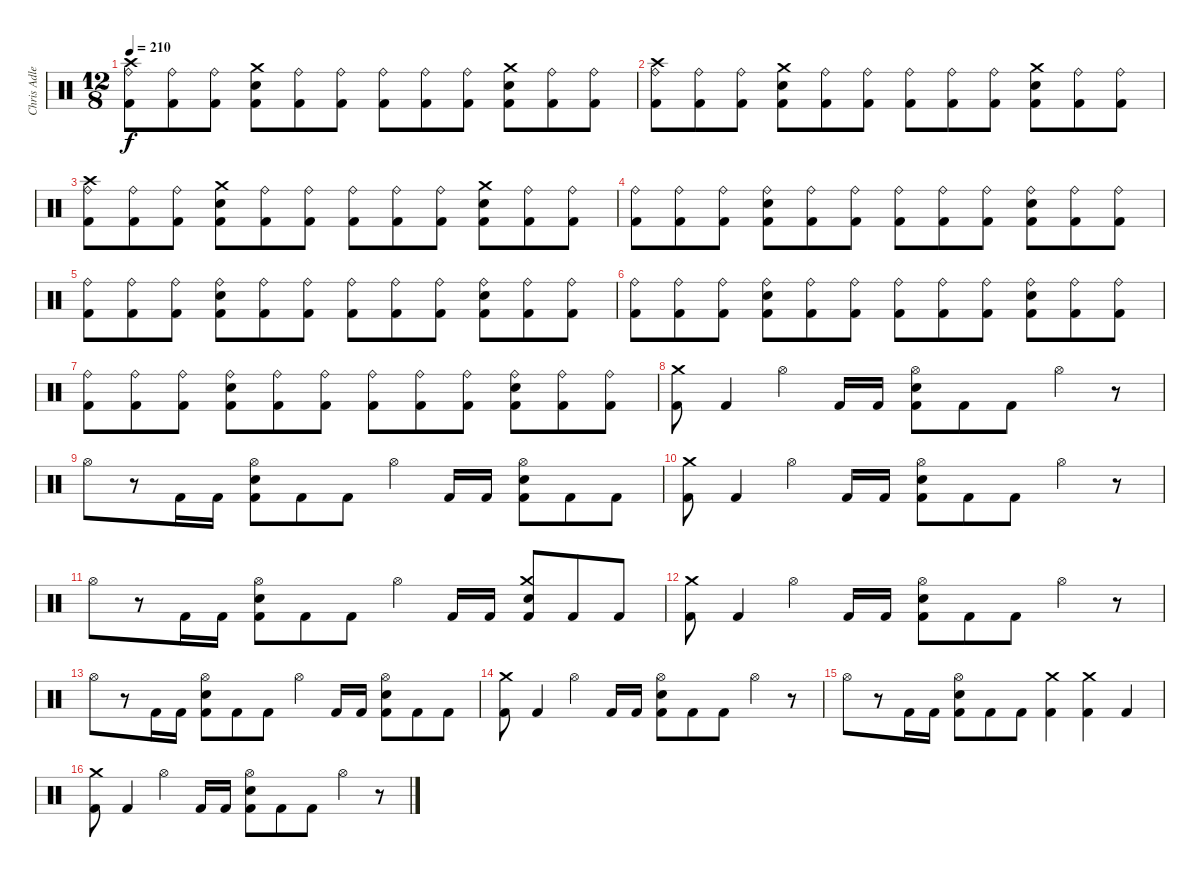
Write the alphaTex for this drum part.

\track ("Chris Adler" "Chris Adle") {instrument percussion}
\staff {score}
\articulation defaults
\ts (12 8)
\tempo 210
\clef neutral
\ks c
("Crash high (hit)" "Ride (bell)" "Kick (hit) 2").8{dy f} ("Ride (bell)" "Kick (hit) 2").8 ("Ride (bell)" "Kick (hit) 2").8 ("Crash medium (hit)" "Snare (hit) 2" "Kick (hit) 2").8 ("Ride (bell)" "Kick (hit) 2").8 ("Ride (bell)" "Kick (hit) 2").8 ("Ride (bell)" "Kick (hit) 2").8 ("Ride (bell)" "Kick (hit) 2").8 ("Ride (bell)" "Kick (hit) 2").8 ("Crash medium (hit)" "Snare (hit) 2" "Kick (hit) 2").8 ("Ride (bell)" "Kick (hit) 2").8 ("Ride (bell)" "Kick (hit) 2").8 |
("Crash high (hit)" "Ride (bell)" "Kick (hit) 2").8 ("Ride (bell)" "Kick (hit) 2").8 ("Ride (bell)" "Kick (hit) 2").8 ("Crash medium (hit)" "Snare (hit) 2" "Kick (hit) 2").8 ("Ride (bell)" "Kick (hit) 2").8 ("Ride (bell)" "Kick (hit) 2").8 ("Ride (bell)" "Kick (hit) 2").8 ("Ride (bell)" "Kick (hit) 2").8 ("Ride (bell)" "Kick (hit) 2").8 ("Crash medium (hit)" "Snare (hit) 2" "Kick (hit) 2").8 ("Ride (bell)" "Kick (hit) 2").8 ("Ride (bell)" "Kick (hit) 2").8 |
("Crash high (hit)" "Ride (bell)" "Kick (hit) 2").8 ("Ride (bell)" "Kick (hit) 2").8 ("Ride (bell)" "Kick (hit) 2").8 ("Crash medium (hit)" "Snare (hit) 2" "Kick (hit) 2").8 ("Ride (bell)" "Kick (hit) 2").8 ("Ride (bell)" "Kick (hit) 2").8 ("Ride (bell)" "Kick (hit) 2").8 ("Ride (bell)" "Kick (hit) 2").8 ("Ride (bell)" "Kick (hit) 2").8 ("Crash medium (hit)" "Snare (hit) 2" "Kick (hit) 2").8 ("Ride (bell)" "Kick (hit) 2").8 ("Ride (bell)" "Kick (hit) 2").8 |
("Ride (bell)" "Kick (hit) 2").8 ("Ride (bell)" "Kick (hit) 2").8 ("Ride (bell)" "Kick (hit) 2").8 ("Ride (bell)" "Snare (hit) 2" "Kick (hit) 2").8 ("Ride (bell)" "Kick (hit) 2").8 ("Ride (bell)" "Kick (hit) 2").8 ("Ride (bell)" "Kick (hit) 2").8 ("Ride (bell)" "Kick (hit) 2").8 ("Ride (bell)" "Kick (hit) 2").8 ("Ride (bell)" "Snare (hit) 2" "Kick (hit) 2").8 ("Ride (bell)" "Kick (hit) 2").8 ("Ride (bell)" "Kick (hit) 2").8 |
("Ride (bell)" "Kick (hit) 2").8 ("Ride (bell)" "Kick (hit) 2").8 ("Ride (bell)" "Kick (hit) 2").8 ("Ride (bell)" "Snare (hit) 2" "Kick (hit) 2").8 ("Ride (bell)" "Kick (hit) 2").8 ("Ride (bell)" "Kick (hit) 2").8 ("Ride (bell)" "Kick (hit) 2").8 ("Ride (bell)" "Kick (hit) 2").8 ("Ride (bell)" "Kick (hit) 2").8 ("Ride (bell)" "Snare (hit) 2" "Kick (hit) 2").8 ("Ride (bell)" "Kick (hit) 2").8 ("Ride (bell)" "Kick (hit) 2").8 |
("Ride (bell)" "Kick (hit) 2").8 ("Ride (bell)" "Kick (hit) 2").8 ("Ride (bell)" "Kick (hit) 2").8 ("Ride (bell)" "Snare (hit) 2" "Kick (hit) 2").8 ("Ride (bell)" "Kick (hit) 2").8 ("Ride (bell)" "Kick (hit) 2").8 ("Ride (bell)" "Kick (hit) 2").8 ("Ride (bell)" "Kick (hit) 2").8 ("Ride (bell)" "Kick (hit) 2").8 ("Ride (bell)" "Snare (hit) 2" "Kick (hit) 2").8 ("Ride (bell)" "Kick (hit) 2").8 ("Ride (bell)" "Kick (hit) 2").8 |
("Ride (bell)" "Kick (hit) 2").8 ("Ride (bell)" "Kick (hit) 2").8 ("Ride (bell)" "Kick (hit) 2").8 ("Ride (bell)" "Snare (hit) 2" "Kick (hit) 2").8 ("Ride (bell)" "Kick (hit) 2").8 ("Ride (bell)" "Kick (hit) 2").8 ("Ride (bell)" "Kick (hit) 2").8 ("Ride (bell)" "Kick (hit) 2").8 ("Ride (bell)" "Kick (hit) 2").8 ("Ride (bell)" "Snare (hit) 2" "Kick (hit) 2").8 ("Ride (bell)" "Kick (hit) 2").8 ("Ride (bell)" "Kick (hit) 2").8 |
("Crash medium (hit)" "Kick (hit) 2").8 "Kick (hit) 2".4 "Hi-Hat (open)".4 "Kick (hit) 2".16 "Kick (hit) 2".16 ("Hi-Hat (open)" "Snare (hit) 2" "Kick (hit) 2").8 "Kick (hit) 2".8 "Kick (hit) 2".8 "Hi-Hat (open)".4 r.8 |
"Hi-Hat (open)".8 r.8 "Kick (hit) 2".16 "Kick (hit) 2".16 ("Hi-Hat (open)" "Snare (hit) 2" "Kick (hit) 2").8 "Kick (hit) 2".8 "Kick (hit) 2".8 "Hi-Hat (open)".4 "Kick (hit) 2".16 "Kick (hit) 2".16 ("Hi-Hat (open)" "Snare (hit) 2" "Kick (hit) 2").8 "Kick (hit) 2".8 "Kick (hit) 2".8 |
("Crash medium (hit)" "Kick (hit) 2").8 "Kick (hit) 2".4 "Hi-Hat (open)".4 "Kick (hit) 2".16 "Kick (hit) 2".16 ("Hi-Hat (open)" "Snare (hit) 2" "Kick (hit) 2").8 "Kick (hit) 2".8 "Kick (hit) 2".8 "Hi-Hat (open)".4 r.8 |
"Hi-Hat (open)".8 r.8 "Kick (hit) 2".16 "Kick (hit) 2".16 ("Hi-Hat (open)" "Snare (hit) 2" "Kick (hit) 2").8 "Kick (hit) 2".8 "Kick (hit) 2".8 "Hi-Hat (open)".4 "Kick (hit) 2".16 "Kick (hit) 2".16 ("Crash medium (hit)" "Snare (hit) 2" "Kick (hit) 2").8 "Kick (hit) 2".8 "Kick (hit) 2".8 |
("Crash medium (hit)" "Kick (hit) 2").8 "Kick (hit) 2".4 "Hi-Hat (open)".4 "Kick (hit) 2".16 "Kick (hit) 2".16 ("Hi-Hat (open)" "Snare (hit) 2" "Kick (hit) 2").8 "Kick (hit) 2".8 "Kick (hit) 2".8 "Hi-Hat (open)".4 r.8 |
"Hi-Hat (open)".8 r.8 "Kick (hit) 2".16 "Kick (hit) 2".16 ("Hi-Hat (open)" "Snare (hit) 2" "Kick (hit) 2").8 "Kick (hit) 2".8 "Kick (hit) 2".8 "Hi-Hat (open)".4 "Kick (hit) 2".16 "Kick (hit) 2".16 ("Hi-Hat (open)" "Snare (hit) 2" "Kick (hit) 2").8 "Kick (hit) 2".8 "Kick (hit) 2".8 |
("Crash medium (hit)" "Kick (hit) 2").8 "Kick (hit) 2".4 "Hi-Hat (open)".4 "Kick (hit) 2".16 "Kick (hit) 2".16 ("Hi-Hat (open)" "Snare (hit) 2" "Kick (hit) 2").8 "Kick (hit) 2".8 "Kick (hit) 2".8 "Hi-Hat (open)".4 r.8 |
"Hi-Hat (open)".8 r.8 "Kick (hit) 2".16 "Kick (hit) 2".16 ("Hi-Hat (open)" "Snare (hit) 2" "Kick (hit) 2").8 "Kick (hit) 2".8 "Kick (hit) 2".8 ("Crash medium (hit)" "Kick (hit) 2").4 ("Crash medium (hit)" "Kick (hit) 2").4 "Kick (hit) 2".4 |
("Crash medium (hit)" "Kick (hit) 2").8 "Kick (hit) 2".4 "Hi-Hat (open)".4 "Kick (hit) 2".16 "Kick (hit) 2".16 ("Hi-Hat (open)" "Snare (hit) 2" "Kick (hit) 2").8 "Kick (hit) 2".8 "Kick (hit) 2".8 "Hi-Hat (open)".4 r.8
